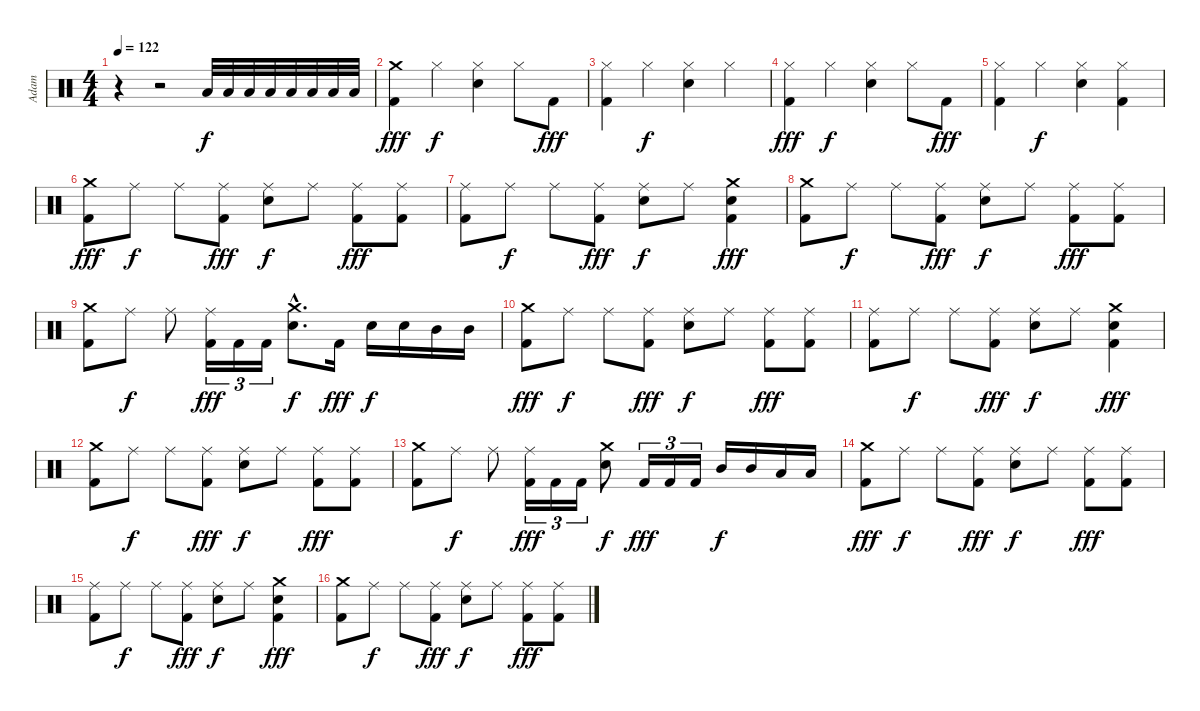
\track ("Adam" "Adam") {instrument percussion}
\staff {score}
\articulation defaults
\ts (4 4)
\tempo 122
\clef neutral
\ks c
r.4{dy f} r.2 "Low Tom (hit)".32 "Low Tom (hit)".32 "Low Tom (hit)".32 "Low Tom (hit)".32 "Low Tom (hit)".32 "Low Tom (hit)".32 "Low Tom (hit)".32 "Low Tom (hit)".32 |
("Crash medium (hit)" "Kick (hit) 2").4{dy fff} "Hi-Hat (closed)".4{dy f} ("Hi-Hat (closed)" "Snare (hit) 2").4 "Hi-Hat (closed)".8 "Kick (hit) 2".8{dy fff} |
("Hi-Hat (closed)" "Kick (hit) 2").4 "Hi-Hat (closed)".4{dy f} ("Hi-Hat (closed)" "Snare (hit) 2").4 "Hi-Hat (closed)".4 |
("Hi-Hat (closed)" "Kick (hit) 2").4{dy fff} "Hi-Hat (closed)".4{dy f} ("Hi-Hat (closed)" "Snare (hit) 2").4 "Hi-Hat (closed)".8 "Kick (hit) 2".8{dy fff} |
("Hi-Hat (closed)" "Kick (hit) 2").4 "Hi-Hat (closed)".4{dy f} ("Hi-Hat (closed)" "Snare (hit) 2").4 ("Hi-Hat (closed)" "Kick (hit) 2").4 |
("Crash medium (hit)" "Kick (hit) 2").8{dy fff} "Ride (middle)".8{dy f} "Ride (middle)".8 ("Ride (middle)" "Kick (hit) 2").8{dy fff} ("Ride (middle)" "Snare (hit) 2").8{dy f} "Ride (middle)".8 ("Ride (middle)" "Kick (hit) 2").8{dy fff} ("Ride (middle)" "Kick (hit) 2").8 |
("Ride (middle)" "Kick (hit) 2").8 "Ride (middle)".8{dy f} "Ride (middle)".8 ("Ride (middle)" "Kick (hit) 2").8{dy fff} ("Ride (middle)" "Snare (hit) 2").8{dy f} "Ride (middle)".8 ("Crash medium (hit)" "Snare (hit) 2" "Kick (hit) 2").4{dy fff} |
("Crash medium (hit)" "Kick (hit) 2").8 "Ride (middle)".8{dy f} "Ride (middle)".8 ("Ride (middle)" "Kick (hit) 2").8{dy fff} ("Ride (middle)" "Snare (hit) 2").8{dy f} "Ride (middle)".8 ("Ride (middle)" "Kick (hit) 2").8{dy fff} ("Ride (middle)" "Kick (hit) 2").8 |
("Crash medium (hit)" "Kick (hit) 2").8 "Ride (middle)".8{dy f} "Ride (middle)".8 ("Ride (middle)" "Kick (hit) 2").16{tu (3 2) dy fff} "Kick (hit) 2".16{tu (3 2)} "Kick (hit) 2".16{tu (3 2)} ("Crash medium (hit)"{hac} "Snare (hit) 2"{hac}).8{d dy f} "Kick (hit) 2".16{dy fff} "Snare (hit) 2".16{dy f} "Snare (hit) 2".16 "Mid Tom (hit)".16 "Mid Tom (hit)".16 |
("Crash medium (hit)" "Kick (hit) 2").8{dy fff} "Ride (middle)".8{dy f} "Ride (middle)".8 ("Ride (middle)" "Kick (hit) 2").8{dy fff} ("Ride (middle)" "Snare (hit) 2").8{dy f} "Ride (middle)".8 ("Ride (middle)" "Kick (hit) 2").8{dy fff} ("Ride (middle)" "Kick (hit) 2").8 |
("Ride (middle)" "Kick (hit) 2").8 "Ride (middle)".8{dy f} "Ride (middle)".8 ("Ride (middle)" "Kick (hit) 2").8{dy fff} ("Ride (middle)" "Snare (hit) 2").8{dy f} "Ride (middle)".8 ("Crash medium (hit)" "Snare (hit) 2" "Kick (hit) 2").4{dy fff} |
("Crash medium (hit)" "Kick (hit) 2").8 "Ride (middle)".8{dy f} "Ride (middle)".8 ("Ride (middle)" "Kick (hit) 2").8{dy fff} ("Ride (middle)" "Snare (hit) 2").8{dy f} "Ride (middle)".8 ("Ride (middle)" "Kick (hit) 2").8{dy fff} ("Ride (middle)" "Kick (hit) 2").8 |
("Crash medium (hit)" "Kick (hit) 2").8 "Ride (middle)".8{dy f} "Ride (middle)".8 ("Ride (middle)" "Kick (hit) 2").16{tu (3 2) dy fff} "Kick (hit) 2".16{tu (3 2)} "Kick (hit) 2".16{tu (3 2)} ("Crash medium (hit)" "Snare (hit) 2").8{dy f} "Kick (hit) 2".16{tu (3 2) dy fff} "Kick (hit) 2".16{tu (3 2)} "Kick (hit) 2".16{tu (3 2)} "Mid Tom (hit)".16{dy f} "Mid Tom (hit)".16 "Low Tom (hit)".16 "Low Tom (hit)".16 |
("Crash medium (hit)" "Kick (hit) 2").8{dy fff} "Ride (middle)".8{dy f} "Ride (middle)".8 ("Ride (middle)" "Kick (hit) 2").8{dy fff} ("Ride (middle)" "Snare (hit) 2").8{dy f} "Ride (middle)".8 ("Ride (middle)" "Kick (hit) 2").8{dy fff} ("Ride (middle)" "Kick (hit) 2").8 |
("Ride (middle)" "Kick (hit) 2").8 "Ride (middle)".8{dy f} "Ride (middle)".8 ("Ride (middle)" "Kick (hit) 2").8{dy fff} ("Ride (middle)" "Snare (hit) 2").8{dy f} "Ride (middle)".8 ("Crash medium (hit)" "Snare (hit) 2" "Kick (hit) 2").4{dy fff} |
("Crash medium (hit)" "Kick (hit) 2").8 "Ride (middle)".8{dy f} "Ride (middle)".8 ("Ride (middle)" "Kick (hit) 2").8{dy fff} ("Ride (middle)" "Snare (hit) 2").8{dy f} "Ride (middle)".8 ("Ride (middle)" "Kick (hit) 2").8{dy fff} ("Ride (middle)" "Kick (hit) 2").8
